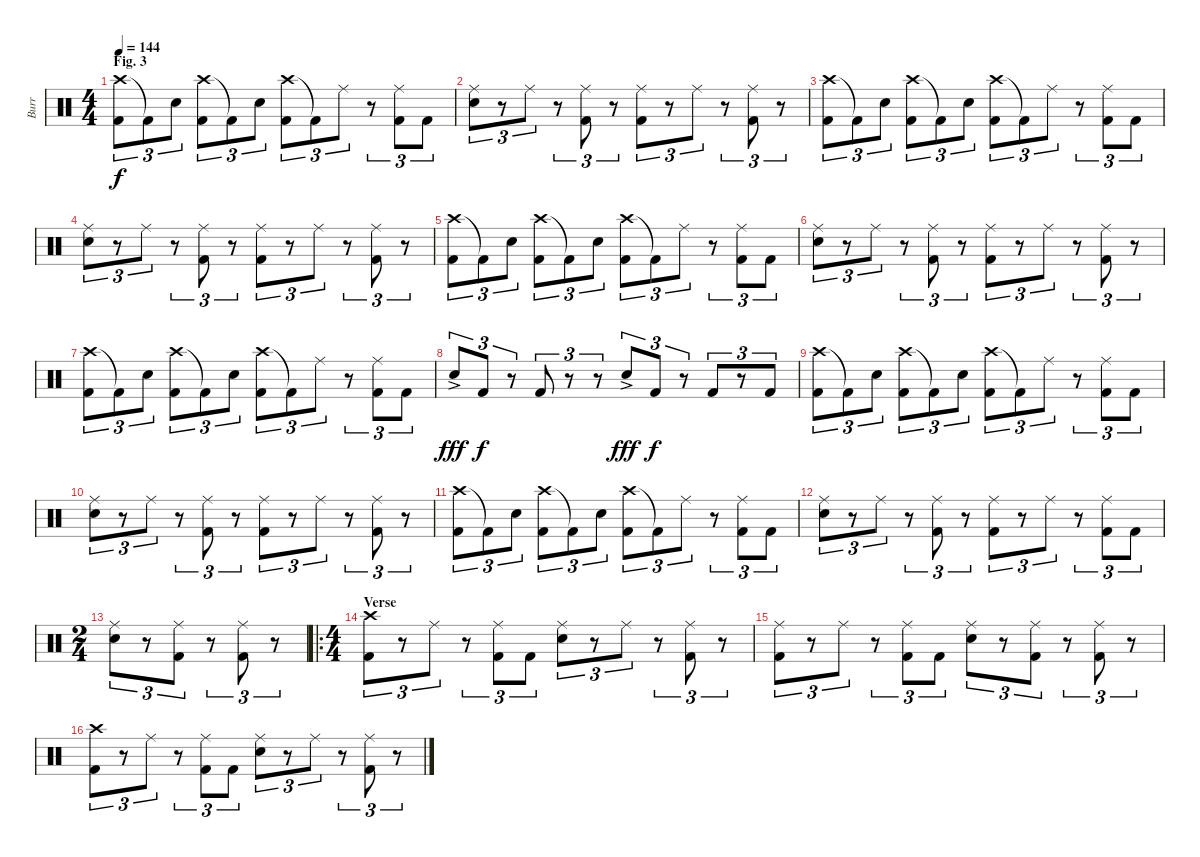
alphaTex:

\track ("Burr" "Burr") {instrument percussion}
\staff {score}
\articulation defaults
\ts (4 4)
\section ("" "Fig. 3")
\tempo 144
\clef neutral
\ks c
("Crash high (hit)" "Kick (hit) 2").8{tu (3 2) dy f} "Kick (hit) 2"{t}.8{tu (3 2)} "Snare (hit) 2".8{tu (3 2)} ("Crash high (hit)" "Kick (hit) 2").8{tu (3 2)} "Kick (hit) 2"{t}.8{tu (3 2)} "Snare (hit) 2".8{tu (3 2)} ("Crash high (hit)" "Kick (hit) 2").8{tu (3 2)} "Kick (hit) 2"{t}.8{tu (3 2)} "Ride (middle)".8{tu (3 2)} r.8{tu (3 2)} ("Ride (middle)" "Kick (hit) 2").8{tu (3 2)} "Kick (hit) 2".8{tu (3 2)} |
("Ride (middle)" "Snare (hit) 2").8{tu (3 2)} r.8{tu (3 2)} "Ride (middle)".8{tu (3 2)} r.8{tu (3 2)} ("Ride (middle)" "Kick (hit) 2").8{tu (3 2)} r.8{tu (3 2)} ("Ride (middle)" "Kick (hit) 2").8{tu (3 2)} r.8{tu (3 2)} "Ride (middle)".8{tu (3 2)} r.8{tu (3 2)} ("Ride (middle)" "Kick (hit) 2").8{tu (3 2)} r.8{tu (3 2)} |
("Crash high (hit)" "Kick (hit) 2").8{tu (3 2)} "Kick (hit) 2"{t}.8{tu (3 2)} "Snare (hit) 2".8{tu (3 2)} ("Crash high (hit)" "Kick (hit) 2").8{tu (3 2)} "Kick (hit) 2"{t}.8{tu (3 2)} "Snare (hit) 2".8{tu (3 2)} ("Crash high (hit)" "Kick (hit) 2").8{tu (3 2)} "Kick (hit) 2"{t}.8{tu (3 2)} "Ride (middle)".8{tu (3 2)} r.8{tu (3 2)} ("Ride (middle)" "Kick (hit) 2").8{tu (3 2)} "Kick (hit) 2".8{tu (3 2)} |
("Ride (middle)" "Snare (hit) 2").8{tu (3 2)} r.8{tu (3 2)} "Ride (middle)".8{tu (3 2)} r.8{tu (3 2)} ("Ride (middle)" "Kick (hit) 2").8{tu (3 2)} r.8{tu (3 2)} ("Ride (middle)" "Kick (hit) 2").8{tu (3 2)} r.8{tu (3 2)} "Ride (middle)".8{tu (3 2)} r.8{tu (3 2)} ("Ride (middle)" "Kick (hit) 2").8{tu (3 2)} r.8{tu (3 2)} |
("Crash high (hit)" "Kick (hit) 2").8{tu (3 2)} "Kick (hit) 2"{t}.8{tu (3 2)} "Snare (hit) 2".8{tu (3 2)} ("Crash high (hit)" "Kick (hit) 2").8{tu (3 2)} "Kick (hit) 2"{t}.8{tu (3 2)} "Snare (hit) 2".8{tu (3 2)} ("Crash high (hit)" "Kick (hit) 2").8{tu (3 2)} "Kick (hit) 2"{t}.8{tu (3 2)} "Ride (middle)".8{tu (3 2)} r.8{tu (3 2)} ("Ride (middle)" "Kick (hit) 2").8{tu (3 2)} "Kick (hit) 2".8{tu (3 2)} |
("Ride (middle)" "Snare (hit) 2").8{tu (3 2)} r.8{tu (3 2)} "Ride (middle)".8{tu (3 2)} r.8{tu (3 2)} ("Ride (middle)" "Kick (hit) 2").8{tu (3 2)} r.8{tu (3 2)} ("Ride (middle)" "Kick (hit) 2").8{tu (3 2)} r.8{tu (3 2)} "Ride (middle)".8{tu (3 2)} r.8{tu (3 2)} ("Ride (middle)" "Kick (hit) 2").8{tu (3 2)} r.8{tu (3 2)} |
("Crash high (hit)" "Kick (hit) 2").8{tu (3 2)} "Kick (hit) 2"{t}.8{tu (3 2)} "Snare (hit) 2".8{tu (3 2)} ("Crash high (hit)" "Kick (hit) 2").8{tu (3 2)} "Kick (hit) 2"{t}.8{tu (3 2)} "Snare (hit) 2".8{tu (3 2)} ("Crash high (hit)" "Kick (hit) 2").8{tu (3 2)} "Kick (hit) 2"{t}.8{tu (3 2)} "Ride (middle)".8{tu (3 2)} r.8{tu (3 2)} ("Ride (middle)" "Kick (hit) 2").8{tu (3 2)} "Kick (hit) 2".8{tu (3 2)} |
"Snare (hit) 2"{ac}.8{tu (3 2) dy fff} "Kick (hit) 2".8{tu (3 2) dy f} r.8{tu (3 2)} "Kick (hit) 2".8{tu (3 2)} r.8{tu (3 2)} r.8{tu (3 2)} "Snare (hit) 2"{ac}.8{tu (3 2) dy fff} "Kick (hit) 2".8{tu (3 2) dy f} r.8{tu (3 2)} "Kick (hit) 2".8{tu (3 2)} r.8{tu (3 2)} "Kick (hit) 2".8{tu (3 2)} |
("Crash high (hit)" "Kick (hit) 2").8{tu (3 2)} "Kick (hit) 2"{t}.8{tu (3 2)} "Snare (hit) 2".8{tu (3 2)} ("Crash high (hit)" "Kick (hit) 2").8{tu (3 2)} "Kick (hit) 2"{t}.8{tu (3 2)} "Snare (hit) 2".8{tu (3 2)} ("Crash high (hit)" "Kick (hit) 2").8{tu (3 2)} "Kick (hit) 2"{t}.8{tu (3 2)} "Ride (middle)".8{tu (3 2)} r.8{tu (3 2)} ("Ride (middle)" "Kick (hit) 2").8{tu (3 2)} "Kick (hit) 2".8{tu (3 2)} |
("Ride (middle)" "Snare (hit) 2").8{tu (3 2)} r.8{tu (3 2)} "Ride (middle)".8{tu (3 2)} r.8{tu (3 2)} ("Ride (middle)" "Kick (hit) 2").8{tu (3 2)} r.8{tu (3 2)} ("Ride (middle)" "Kick (hit) 2").8{tu (3 2)} r.8{tu (3 2)} "Ride (middle)".8{tu (3 2)} r.8{tu (3 2)} ("Ride (middle)" "Kick (hit) 2").8{tu (3 2)} r.8{tu (3 2)} |
("Crash high (hit)" "Kick (hit) 2").8{tu (3 2)} "Kick (hit) 2"{t}.8{tu (3 2)} "Snare (hit) 2".8{tu (3 2)} ("Crash high (hit)" "Kick (hit) 2").8{tu (3 2)} "Kick (hit) 2"{t}.8{tu (3 2)} "Snare (hit) 2".8{tu (3 2)} ("Crash high (hit)" "Kick (hit) 2").8{tu (3 2)} "Kick (hit) 2"{t}.8{tu (3 2)} "Ride (middle)".8{tu (3 2)} r.8{tu (3 2)} ("Ride (middle)" "Kick (hit) 2").8{tu (3 2)} "Kick (hit) 2".8{tu (3 2)} |
("Ride (middle)" "Snare (hit) 2").8{tu (3 2)} r.8{tu (3 2)} "Ride (middle)".8{tu (3 2)} r.8{tu (3 2)} ("Ride (middle)" "Kick (hit) 2").8{tu (3 2)} r.8{tu (3 2)} ("Ride (middle)" "Kick (hit) 2").8{tu (3 2)} r.8{tu (3 2)} "Ride (middle)".8{tu (3 2)} r.8{tu (3 2)} ("Ride (middle)" "Kick (hit) 2").8{tu (3 2)} "Kick (hit) 2".8{tu (3 2)} |
\ts (2 4)
("Ride (middle)" "Snare (hit) 2").8{tu (3 2)} r.8{tu (3 2)} ("Ride (middle)" "Kick (hit) 2").8{tu (3 2)} r.8{tu (3 2)} ("Ride (middle)" "Kick (hit) 2").8{tu (3 2)} r.8{tu (3 2)} |
\ro
\ts (4 4)
\section ("" "Verse")
("Crash high (hit)" "Kick (hit) 2").8{tu (3 2)} r.8{tu (3 2)} "Ride (middle)".8{tu (3 2)} r.8{tu (3 2)} ("Ride (middle)" "Kick (hit) 2").8{tu (3 2)} "Kick (hit) 2".8{tu (3 2)} ("Ride (middle)" "Snare (hit) 2").8{tu (3 2)} r.8{tu (3 2)} "Ride (middle)".8{tu (3 2)} r.8{tu (3 2)} ("Ride (middle)" "Kick (hit) 2").8{tu (3 2)} r.8{tu (3 2)} |
("Ride (middle)" "Kick (hit) 2").8{tu (3 2)} r.8{tu (3 2)} "Ride (middle)".8{tu (3 2)} r.8{tu (3 2)} ("Ride (middle)" "Kick (hit) 2").8{tu (3 2)} "Kick (hit) 2".8{tu (3 2)} ("Ride (middle)" "Snare (hit) 2").8{tu (3 2)} r.8{tu (3 2)} ("Ride (middle)" "Kick (hit) 2").8{tu (3 2)} r.8{tu (3 2)} ("Ride (middle)" "Kick (hit) 2").8{tu (3 2)} r.8{tu (3 2)} |
("Crash high (hit)" "Kick (hit) 2").8{tu (3 2)} r.8{tu (3 2)} "Ride (middle)".8{tu (3 2)} r.8{tu (3 2)} ("Ride (middle)" "Kick (hit) 2").8{tu (3 2)} "Kick (hit) 2".8{tu (3 2)} ("Ride (middle)" "Snare (hit) 2").8{tu (3 2)} r.8{tu (3 2)} "Ride (middle)".8{tu (3 2)} r.8{tu (3 2)} ("Ride (middle)" "Kick (hit) 2").8{tu (3 2)} r.8{tu (3 2)}
